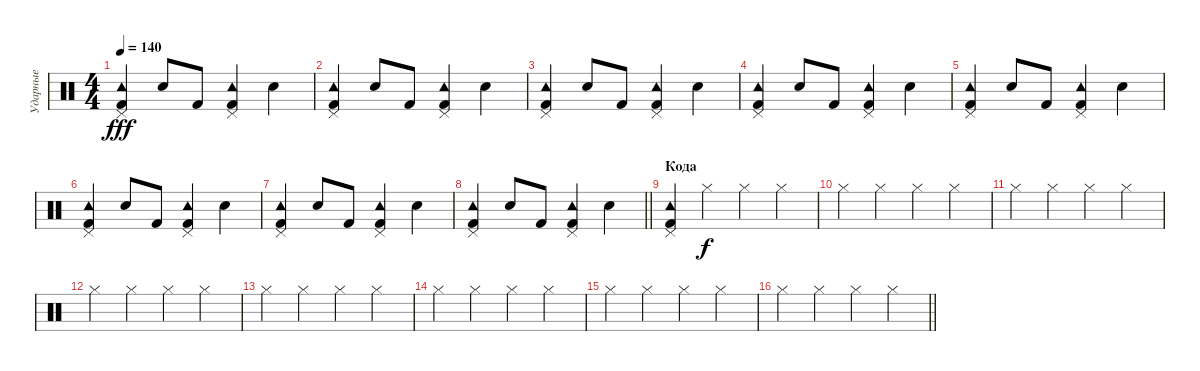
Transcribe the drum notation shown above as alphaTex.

\track ("Ударные" "Ударные") {instrument percussion}
\staff {score}
\articulation defaults
\ts (4 4)
\tempo 140
\clef neutral
\ks c
("Tambourine (hit)" "Pedal Hi-Hat (hit)" "Kick (hit) 2").4{dy fff} "Electric Snare (hit)".8 "Kick (hit) 2".8 ("Tambourine (hit)" "Pedal Hi-Hat (hit)" "Kick (hit) 2").4 "Electric Snare (hit)".4 |
("Tambourine (hit)" "Pedal Hi-Hat (hit)" "Kick (hit) 2").4 "Electric Snare (hit)".8 "Kick (hit) 2".8 ("Tambourine (hit)" "Pedal Hi-Hat (hit)" "Kick (hit) 2").4 "Electric Snare (hit)".4 |
("Tambourine (hit)" "Pedal Hi-Hat (hit)" "Kick (hit) 2").4 "Electric Snare (hit)".8 "Kick (hit) 2".8 ("Tambourine (hit)" "Pedal Hi-Hat (hit)" "Kick (hit) 2").4 "Electric Snare (hit)".4 |
("Tambourine (hit)" "Pedal Hi-Hat (hit)" "Kick (hit) 2").4 "Electric Snare (hit)".8 "Kick (hit) 2".8 ("Tambourine (hit)" "Pedal Hi-Hat (hit)" "Kick (hit) 2").4 "Electric Snare (hit)".4 |
("Tambourine (hit)" "Pedal Hi-Hat (hit)" "Kick (hit) 2").4 "Electric Snare (hit)".8 "Kick (hit) 2".8 ("Tambourine (hit)" "Pedal Hi-Hat (hit)" "Kick (hit) 2").4 "Electric Snare (hit)".4 |
("Tambourine (hit)" "Pedal Hi-Hat (hit)" "Kick (hit) 2").4 "Electric Snare (hit)".8 "Kick (hit) 2".8 ("Tambourine (hit)" "Pedal Hi-Hat (hit)" "Kick (hit) 2").4 "Electric Snare (hit)".4 |
("Tambourine (hit)" "Pedal Hi-Hat (hit)" "Kick (hit) 2").4 "Electric Snare (hit)".8 "Kick (hit) 2".8 ("Tambourine (hit)" "Pedal Hi-Hat (hit)" "Kick (hit) 2").4 "Electric Snare (hit)".4 |
\barLineRight lightlight
("Tambourine (hit)" "Pedal Hi-Hat (hit)" "Kick (hit) 2").4 "Electric Snare (hit)".8 "Kick (hit) 2".8 ("Tambourine (hit)" "Pedal Hi-Hat (hit)" "Kick (hit) 2").4 "Electric Snare (hit)".4 |
\section ("" "Кода")
("Tambourine (hit)" "Pedal Hi-Hat (hit)" "Kick (hit) 2").4 "Hi-Hat (closed)".4{dy f} "Hi-Hat (closed)".4 "Hi-Hat (closed)".4 |
"Hi-Hat (closed)".4 "Hi-Hat (closed)".4 "Hi-Hat (closed)".4 "Hi-Hat (closed)".4 |
"Hi-Hat (closed)".4 "Hi-Hat (closed)".4 "Hi-Hat (closed)".4 "Hi-Hat (closed)".4 |
"Hi-Hat (closed)".4 "Hi-Hat (closed)".4 "Hi-Hat (closed)".4 "Hi-Hat (closed)".4 |
"Hi-Hat (closed)".4 "Hi-Hat (closed)".4 "Hi-Hat (closed)".4 "Hi-Hat (closed)".4 |
"Hi-Hat (closed)".4 "Hi-Hat (closed)".4 "Hi-Hat (closed)".4 "Hi-Hat (closed)".4 |
"Hi-Hat (closed)".4 "Hi-Hat (closed)".4 "Hi-Hat (closed)".4 "Hi-Hat (closed)".4 |
\barLineRight lightlight "Hi-Hat (closed)".4 "Hi-Hat (closed)".4 "Hi-Hat (closed)".4 "Hi-Hat (closed)".4
